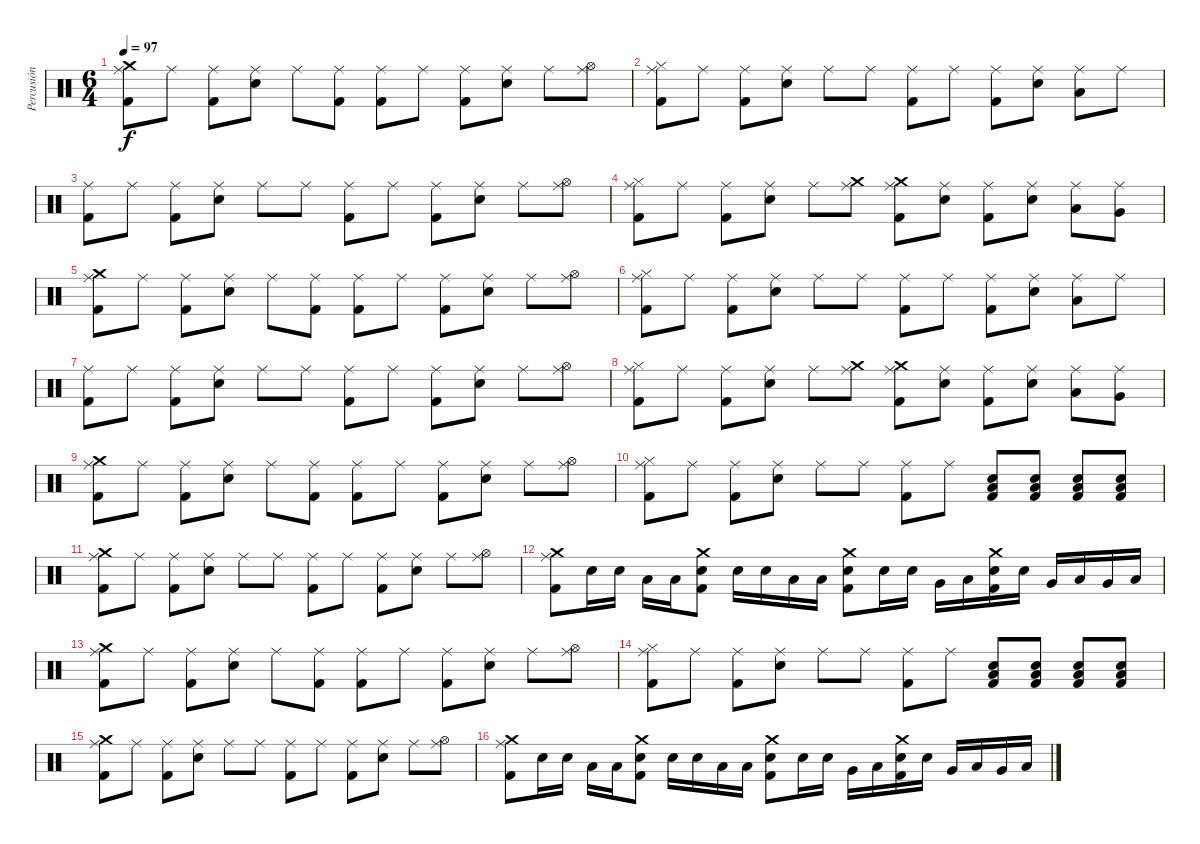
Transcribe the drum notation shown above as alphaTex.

\track ("Percusión" "Percusión") {instrument percussion}
\staff {score}
\articulation defaults
\ts (6 4)
\tempo 97
\clef neutral
\ks c
("Crash medium (hit)" "Ride (middle)" "Kick (hit) 2").8{dy f} "Ride (middle)".8 ("Ride (middle)" "Kick (hit) 2").8 ("Ride (middle)" "Electric Snare (hit)").8 "Ride (middle)".8 ("Ride (middle)" "Kick (hit) 2").8 ("Ride (middle)" "Kick (hit) 2").8 "Ride (middle)".8 ("Ride (middle)" "Kick (hit) 2").8 ("Ride (middle)" "Electric Snare (hit)").8 "Ride (middle)".8 ("Ride (middle)" "Hi-Hat (open)").8 |
("Ride (middle)" "Kick (hit) 2" "Hi-Hat (closed)").8 "Ride (middle)".8 ("Ride (middle)" "Kick (hit) 2").8 ("Ride (middle)" "Electric Snare (hit)").8 "Ride (middle)".8 "Ride (middle)".8 ("Ride (middle)" "Kick (hit) 2").8 "Ride (middle)".8 ("Ride (middle)" "Kick (hit) 2").8 ("Ride (middle)" "Electric Snare (hit)").8 ("Ride (middle)" "Low Floor Tom (hit)").8 "Ride (middle)".8 |
("Ride (middle)" "Kick (hit) 2").8 "Ride (middle)".8 ("Ride (middle)" "Kick (hit) 2").8 ("Ride (middle)" "Electric Snare (hit)").8 "Ride (middle)".8 "Ride (middle)".8 ("Ride (middle)" "Kick (hit) 2").8 "Ride (middle)".8 ("Ride (middle)" "Kick (hit) 2").8 ("Ride (middle)" "Electric Snare (hit)").8 "Ride (middle)".8 ("Ride (middle)" "Hi-Hat (open)").8 |
("Ride (middle)" "Hi-Hat (closed)" "Kick (hit) 2").8 "Ride (middle)".8 ("Ride (middle)" "Kick (hit) 2").8 ("Ride (middle)" "Electric Snare (hit)").8 "Ride (middle)".8 ("Ride (middle)" "Crash medium (hit)").8 ("Ride (middle)" "Crash medium (hit)" "Kick (hit) 2").8 ("Ride (middle)" "Electric Snare (hit)").8 ("Ride (middle)" "Kick (hit) 2").8 ("Ride (middle)" "Electric Snare (hit)").8 ("Ride (middle)" "Low Floor Tom (hit)").8 ("Ride (middle)" "Very Low Tom (hit)").8 |
("Crash medium (hit)" "Ride (middle)" "Kick (hit) 2").8 "Ride (middle)".8 ("Ride (middle)" "Kick (hit) 2").8 ("Ride (middle)" "Electric Snare (hit)").8 "Ride (middle)".8 ("Ride (middle)" "Kick (hit) 2").8 ("Ride (middle)" "Kick (hit) 2").8 "Ride (middle)".8 ("Ride (middle)" "Kick (hit) 2").8 ("Ride (middle)" "Electric Snare (hit)").8 "Ride (middle)".8 ("Ride (middle)" "Hi-Hat (open)").8 |
("Ride (middle)" "Kick (hit) 2" "Hi-Hat (closed)").8 "Ride (middle)".8 ("Ride (middle)" "Kick (hit) 2").8 ("Ride (middle)" "Electric Snare (hit)").8 "Ride (middle)".8 "Ride (middle)".8 ("Ride (middle)" "Kick (hit) 2").8 "Ride (middle)".8 ("Ride (middle)" "Kick (hit) 2").8 ("Ride (middle)" "Electric Snare (hit)").8 ("Ride (middle)" "Low Floor Tom (hit)").8 "Ride (middle)".8 |
("Ride (middle)" "Kick (hit) 2").8 "Ride (middle)".8 ("Ride (middle)" "Kick (hit) 2").8 ("Ride (middle)" "Electric Snare (hit)").8 "Ride (middle)".8 "Ride (middle)".8 ("Ride (middle)" "Kick (hit) 2").8 "Ride (middle)".8 ("Ride (middle)" "Kick (hit) 2").8 ("Ride (middle)" "Electric Snare (hit)").8 "Ride (middle)".8 ("Ride (middle)" "Hi-Hat (open)").8 |
("Ride (middle)" "Hi-Hat (closed)" "Kick (hit) 2").8 "Ride (middle)".8 ("Ride (middle)" "Kick (hit) 2").8 ("Ride (middle)" "Electric Snare (hit)").8 "Ride (middle)".8 ("Ride (middle)" "Crash medium (hit)").8 ("Ride (middle)" "Crash medium (hit)" "Kick (hit) 2").8 ("Ride (middle)" "Electric Snare (hit)").8 ("Ride (middle)" "Kick (hit) 2").8 ("Ride (middle)" "Electric Snare (hit)").8 ("Ride (middle)" "Low Floor Tom (hit)").8 ("Ride (middle)" "Very Low Tom (hit)").8 |
("Crash medium (hit)" "Ride (middle)" "Kick (hit) 2").8 "Ride (middle)".8 ("Ride (middle)" "Kick (hit) 2").8 ("Ride (middle)" "Electric Snare (hit)").8 "Ride (middle)".8 ("Ride (middle)" "Kick (hit) 2").8 ("Ride (middle)" "Kick (hit) 2").8 "Ride (middle)".8 ("Ride (middle)" "Kick (hit) 2").8 ("Ride (middle)" "Electric Snare (hit)").8 "Ride (middle)".8 ("Ride (middle)" "Hi-Hat (open)").8 |
("Ride (middle)" "Kick (hit) 2" "Hi-Hat (closed)").8 "Ride (middle)".8 ("Ride (middle)" "Kick (hit) 2").8 ("Ride (middle)" "Electric Snare (hit)").8 "Ride (middle)".8 "Ride (middle)".8 ("Ride (middle)" "Kick (hit) 2").8 "Ride (middle)".8 ("Electric Snare (hit)" "Kick (hit) 2" "Low Floor Tom (hit)").8 ("Electric Snare (hit)" "Kick (hit) 2" "Low Floor Tom (hit)").8 ("Electric Snare (hit)" "Kick (hit) 2" "Low Floor Tom (hit)").8 ("Electric Snare (hit)" "Kick (hit) 2" "Low Floor Tom (hit)").8 |
("Crash medium (hit)" "Ride (middle)" "Kick (hit) 2").8 "Ride (middle)".8 ("Ride (middle)" "Kick (hit) 2").8 ("Ride (middle)" "Electric Snare (hit)").8 "Ride (middle)".8 "Ride (middle)".8 ("Ride (middle)" "Kick (hit) 2").8 "Ride (middle)".8 ("Ride (middle)" "Kick (hit) 2").8 ("Ride (middle)" "Electric Snare (hit)").8 "Ride (middle)".8 ("Ride (middle)" "Hi-Hat (open)").8 |
("Ride (middle)" "Crash medium (hit)" "Kick (hit) 2").8 "Electric Snare (hit)".16 "Electric Snare (hit)".16 "Low Tom (hit)".16 "Low Floor Tom (hit)".16 ("Kick (hit) 2" "Electric Snare (hit)" "Crash medium (hit)").8 "Electric Snare (hit)".16 "Electric Snare (hit)".16 "Low Tom (hit)".16 "Low Floor Tom (hit)".16 ("Kick (hit) 2" "Electric Snare (hit)" "Crash medium (hit)").8 "Electric Snare (hit)".16 "Electric Snare (hit)".16 "Very Low Tom (hit)".16 "Low Floor Tom (hit)".16 ("Kick (hit) 2" "Crash medium (hit)" "Electric Snare (hit)").16 "Electric Snare (hit)".16 "Very Low Tom (hit)".16 "Low Tom (hit)".16 "Very Low Tom (hit)".16 "Low Floor Tom (hit)".16 |
("Crash medium (hit)" "Ride (middle)" "Kick (hit) 2").8 "Ride (middle)".8 ("Ride (middle)" "Kick (hit) 2").8 ("Ride (middle)" "Electric Snare (hit)").8 "Ride (middle)".8 ("Ride (middle)" "Kick (hit) 2").8 ("Ride (middle)" "Kick (hit) 2").8 "Ride (middle)".8 ("Ride (middle)" "Kick (hit) 2").8 ("Ride (middle)" "Electric Snare (hit)").8 "Ride (middle)".8 ("Ride (middle)" "Hi-Hat (open)").8 |
("Ride (middle)" "Kick (hit) 2" "Hi-Hat (closed)").8 "Ride (middle)".8 ("Ride (middle)" "Kick (hit) 2").8 ("Ride (middle)" "Electric Snare (hit)").8 "Ride (middle)".8 "Ride (middle)".8 ("Ride (middle)" "Kick (hit) 2").8 "Ride (middle)".8 ("Electric Snare (hit)" "Kick (hit) 2" "Low Floor Tom (hit)").8 ("Electric Snare (hit)" "Kick (hit) 2" "Low Floor Tom (hit)").8 ("Electric Snare (hit)" "Kick (hit) 2" "Low Floor Tom (hit)").8 ("Electric Snare (hit)" "Kick (hit) 2" "Low Floor Tom (hit)").8 |
("Crash medium (hit)" "Ride (middle)" "Kick (hit) 2").8 "Ride (middle)".8 ("Ride (middle)" "Kick (hit) 2").8 ("Ride (middle)" "Electric Snare (hit)").8 "Ride (middle)".8 "Ride (middle)".8 ("Ride (middle)" "Kick (hit) 2").8 "Ride (middle)".8 ("Ride (middle)" "Kick (hit) 2").8 ("Ride (middle)" "Electric Snare (hit)").8 "Ride (middle)".8 ("Ride (middle)" "Hi-Hat (open)").8 |
("Ride (middle)" "Crash medium (hit)" "Kick (hit) 2").8 "Electric Snare (hit)".16 "Electric Snare (hit)".16 "Low Tom (hit)".16 "Low Floor Tom (hit)".16 ("Kick (hit) 2" "Electric Snare (hit)" "Crash medium (hit)").8 "Electric Snare (hit)".16 "Electric Snare (hit)".16 "Low Tom (hit)".16 "Low Floor Tom (hit)".16 ("Kick (hit) 2" "Electric Snare (hit)" "Crash medium (hit)").8 "Electric Snare (hit)".16 "Electric Snare (hit)".16 "Very Low Tom (hit)".16 "Low Floor Tom (hit)".16 ("Kick (hit) 2" "Crash medium (hit)" "Electric Snare (hit)").16 "Electric Snare (hit)".16 "Very Low Tom (hit)".16 "Low Tom (hit)".16 "Very Low Tom (hit)".16 "Low Floor Tom (hit)".16
